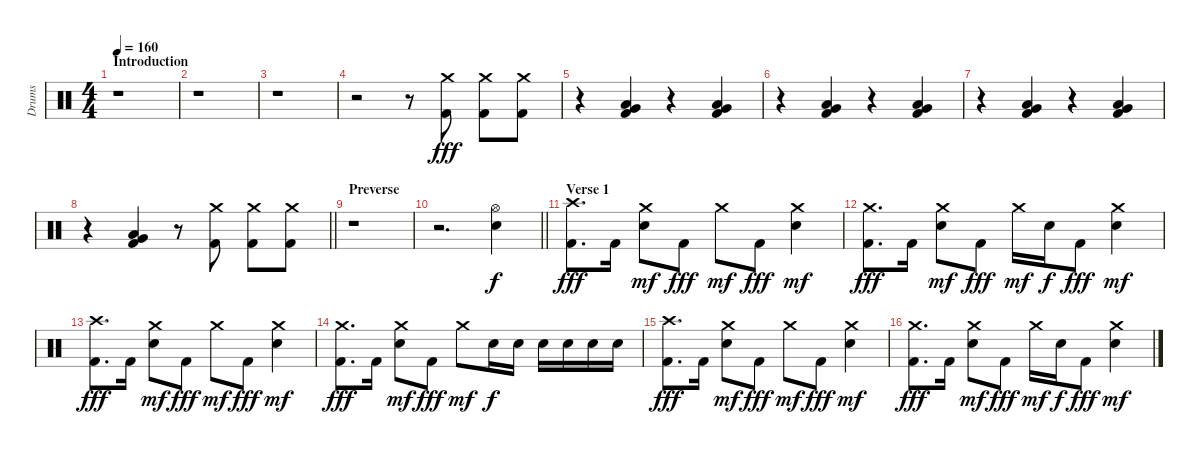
\track ("Drums" "Drums") {instrument percussion}
\staff {score}
\articulation defaults
\ts (4 4)
\section ("" "Introduction")
\tempo 160
\clef neutral
\ks c
r.1{dy fff} |
r.1 |
r.1 |
r.2 r.8 ("Crash medium (hit)" "Kick (hit) 2").8 ("Crash medium (hit)" "Kick (hit) 2").8 ("Crash medium (hit)" "Kick (hit) 2").8 |
r.4 ("Very Low Tom (hit)" "Low Floor Tom (hit)" "Kick (hit) 2").4 r.4 ("Very Low Tom (hit)" "Low Floor Tom (hit)" "Kick (hit) 2").4 |
r.4 ("Very Low Tom (hit)" "Low Floor Tom (hit)" "Kick (hit) 2").4 r.4 ("Very Low Tom (hit)" "Low Floor Tom (hit)" "Kick (hit) 2").4 |
r.4 ("Very Low Tom (hit)" "Low Floor Tom (hit)" "Kick (hit) 2").4 r.4 ("Very Low Tom (hit)" "Low Floor Tom (hit)" "Kick (hit) 2").4 |
\barLineRight lightlight
r.4 ("Very Low Tom (hit)" "Low Floor Tom (hit)" "Kick (hit) 2").4 r.8 ("Crash medium (hit)" "Kick (hit) 2").8 ("Crash medium (hit)" "Kick (hit) 2").8 ("Crash medium (hit)" "Kick (hit) 2").8 |
\section ("" "Preverse")
r.1 |
\barLineRight lightlight
r.2{d} ("Hi-Hat (open)" "Snare (hit) 2").4{dy f} |
\section ("" "Verse 1")
("Crash high (hit)" "Kick (hit) 2").8{d dy fff} "Kick (hit) 2".16 ("Crash medium (hit)" "Snare (hit) 2").8{dy mf} "Kick (hit) 2".8{dy fff} "Crash medium (hit)".8{dy mf} "Kick (hit) 2".8{dy fff} ("Crash medium (hit)" "Snare (hit) 2").4{dy mf} |
("Crash medium (hit)" "Kick (hit) 2").8{d dy fff} "Kick (hit) 2".16 ("Crash medium (hit)" "Snare (hit) 2").8{dy mf} "Kick (hit) 2".8{dy fff} "Crash medium (hit)".16{dy mf} "Snare (hit) 2".16{dy f} "Kick (hit) 2".8{dy fff} ("Crash medium (hit)" "Snare (hit) 2").4{dy mf} |
("Crash high (hit)" "Kick (hit) 2").8{d dy fff} "Kick (hit) 2".16 ("Crash medium (hit)" "Snare (hit) 2").8{dy mf} "Kick (hit) 2".8{dy fff} "Crash medium (hit)".8{dy mf} "Kick (hit) 2".8{dy fff} ("Crash medium (hit)" "Snare (hit) 2").4{dy mf} |
("Crash medium (hit)" "Kick (hit) 2").8{d dy fff} "Kick (hit) 2".16 ("Crash medium (hit)" "Snare (hit) 2").8{dy mf} "Kick (hit) 2".8{dy fff} "Crash medium (hit)".8{dy mf} "Snare (hit) 2".16{dy f} "Snare (hit) 2".16 "Snare (hit) 2".16 "Snare (hit) 2".16 "Snare (hit) 2".16 "Snare (hit) 2".16 |
("Crash high (hit)" "Kick (hit) 2").8{d dy fff} "Kick (hit) 2".16 ("Crash medium (hit)" "Snare (hit) 2").8{dy mf} "Kick (hit) 2".8{dy fff} "Crash medium (hit)".8{dy mf} "Kick (hit) 2".8{dy fff} ("Crash medium (hit)" "Snare (hit) 2").4{dy mf} |
("Crash medium (hit)" "Kick (hit) 2").8{d dy fff} "Kick (hit) 2".16 ("Crash medium (hit)" "Snare (hit) 2").8{dy mf} "Kick (hit) 2".8{dy fff} "Crash medium (hit)".16{dy mf} "Snare (hit) 2".16{dy f} "Kick (hit) 2".8{dy fff} ("Crash medium (hit)" "Snare (hit) 2").4{dy mf}
